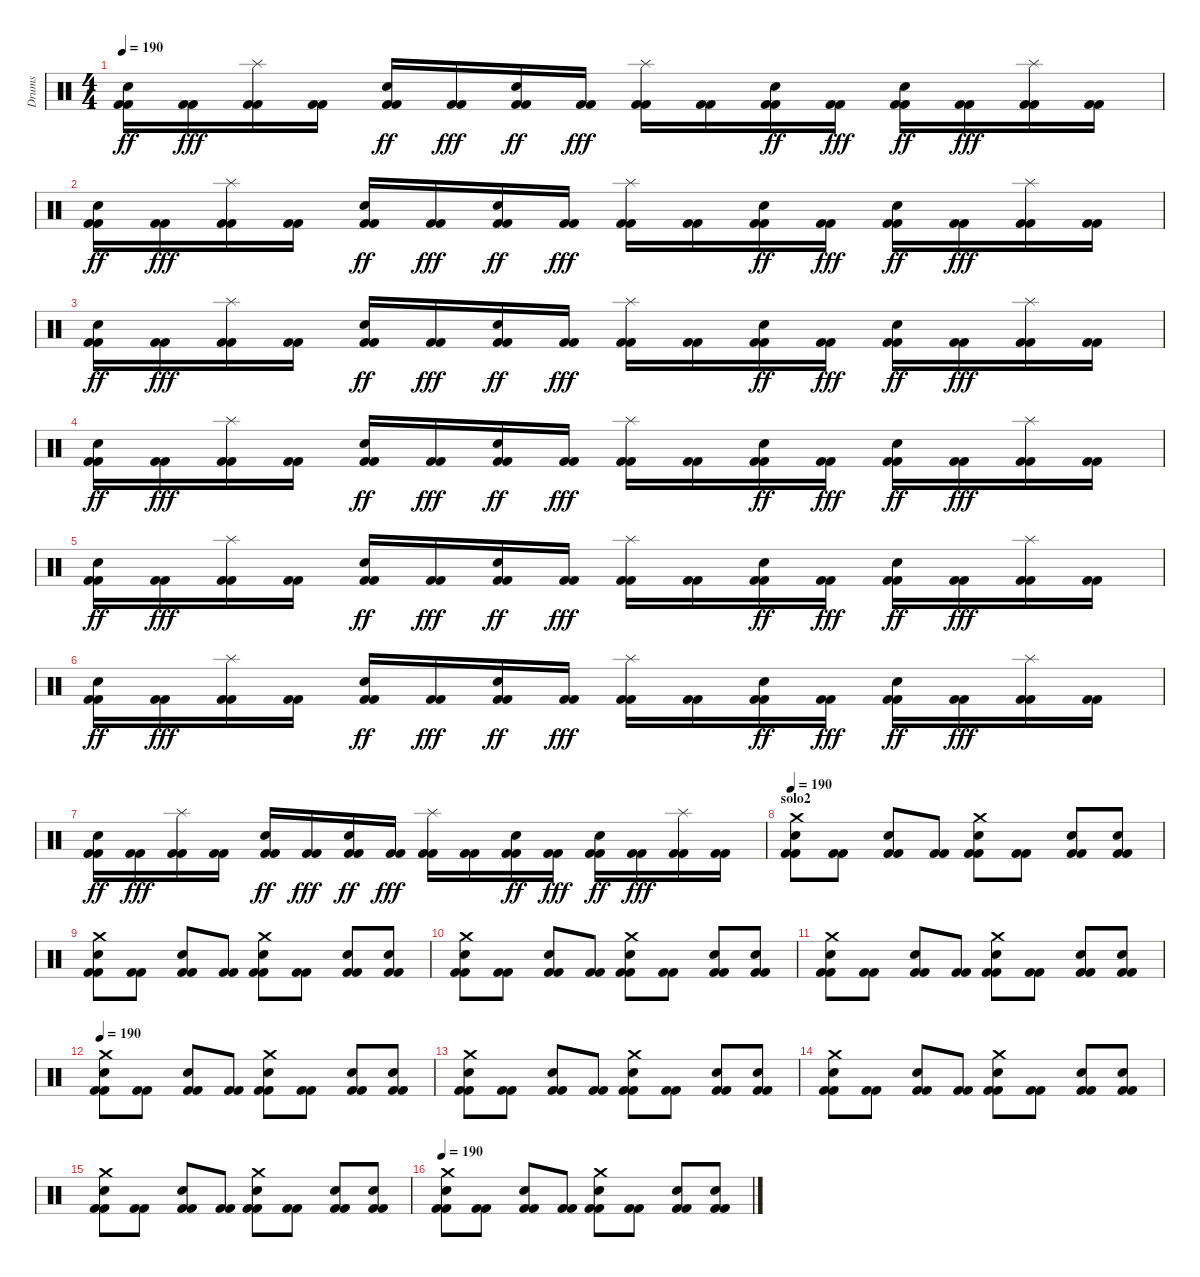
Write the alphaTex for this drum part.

\track ("Drums" "Drums") {instrument percussion}
\staff {score}
\articulation defaults
\ts (4 4)
\tempo 190
\clef neutral
\ks c
("Kick (hit) 2" "Kick (hit) 2" "Electric Snare (hit)").16{dy ff} ("Kick (hit) 2" "Kick (hit) 2").16{dy fff} ("Kick (hit) 2" "Kick (hit) 2" "Splash (hit)").16 ("Kick (hit) 2" "Kick (hit) 2").16 ("Kick (hit) 2" "Kick (hit) 2" "Electric Snare (hit)").16{dy ff} ("Kick (hit) 2" "Kick (hit) 2").16{dy fff} ("Kick (hit) 2" "Kick (hit) 2" "Electric Snare (hit)").16{dy ff} ("Kick (hit) 2" "Kick (hit) 2").16{dy fff} ("Kick (hit) 2" "Kick (hit) 2" "Splash (hit)").16 ("Kick (hit) 2" "Kick (hit) 2").16 ("Kick (hit) 2" "Kick (hit) 2" "Electric Snare (hit)").16{dy ff} ("Kick (hit) 2" "Kick (hit) 2").16{dy fff} ("Kick (hit) 2" "Kick (hit) 2" "Electric Snare (hit)").16{dy ff} ("Kick (hit) 2" "Kick (hit) 2").16{dy fff} ("Kick (hit) 2" "Kick (hit) 2" "Splash (hit)").16 ("Kick (hit) 2" "Kick (hit) 2").16 |
("Kick (hit) 2" "Kick (hit) 2" "Electric Snare (hit)").16{dy ff} ("Kick (hit) 2" "Kick (hit) 2").16{dy fff} ("Kick (hit) 2" "Kick (hit) 2" "Splash (hit)").16 ("Kick (hit) 2" "Kick (hit) 2").16 ("Kick (hit) 2" "Kick (hit) 2" "Electric Snare (hit)").16{dy ff} ("Kick (hit) 2" "Kick (hit) 2").16{dy fff} ("Kick (hit) 2" "Kick (hit) 2" "Electric Snare (hit)").16{dy ff} ("Kick (hit) 2" "Kick (hit) 2").16{dy fff} ("Kick (hit) 2" "Kick (hit) 2" "Splash (hit)").16 ("Kick (hit) 2" "Kick (hit) 2").16 ("Kick (hit) 2" "Kick (hit) 2" "Electric Snare (hit)").16{dy ff} ("Kick (hit) 2" "Kick (hit) 2").16{dy fff} ("Kick (hit) 2" "Kick (hit) 2" "Electric Snare (hit)").16{dy ff} ("Kick (hit) 2" "Kick (hit) 2").16{dy fff} ("Kick (hit) 2" "Kick (hit) 2" "Splash (hit)").16 ("Kick (hit) 2" "Kick (hit) 2").16 |
("Kick (hit) 2" "Kick (hit) 2" "Electric Snare (hit)").16{dy ff} ("Kick (hit) 2" "Kick (hit) 2").16{dy fff} ("Kick (hit) 2" "Kick (hit) 2" "Splash (hit)").16 ("Kick (hit) 2" "Kick (hit) 2").16 ("Kick (hit) 2" "Kick (hit) 2" "Electric Snare (hit)").16{dy ff} ("Kick (hit) 2" "Kick (hit) 2").16{dy fff} ("Kick (hit) 2" "Kick (hit) 2" "Electric Snare (hit)").16{dy ff} ("Kick (hit) 2" "Kick (hit) 2").16{dy fff} ("Kick (hit) 2" "Kick (hit) 2" "Splash (hit)").16 ("Kick (hit) 2" "Kick (hit) 2").16 ("Kick (hit) 2" "Kick (hit) 2" "Electric Snare (hit)").16{dy ff} ("Kick (hit) 2" "Kick (hit) 2").16{dy fff} ("Kick (hit) 2" "Kick (hit) 2" "Electric Snare (hit)").16{dy ff} ("Kick (hit) 2" "Kick (hit) 2").16{dy fff} ("Kick (hit) 2" "Kick (hit) 2" "Splash (hit)").16 ("Kick (hit) 2" "Kick (hit) 2").16 |
("Kick (hit) 2" "Kick (hit) 2" "Electric Snare (hit)").16{dy ff} ("Kick (hit) 2" "Kick (hit) 2").16{dy fff} ("Kick (hit) 2" "Kick (hit) 2" "Splash (hit)").16 ("Kick (hit) 2" "Kick (hit) 2").16 ("Kick (hit) 2" "Kick (hit) 2" "Electric Snare (hit)").16{dy ff} ("Kick (hit) 2" "Kick (hit) 2").16{dy fff} ("Kick (hit) 2" "Kick (hit) 2" "Electric Snare (hit)").16{dy ff} ("Kick (hit) 2" "Kick (hit) 2").16{dy fff} ("Kick (hit) 2" "Kick (hit) 2" "Splash (hit)").16 ("Kick (hit) 2" "Kick (hit) 2").16 ("Kick (hit) 2" "Kick (hit) 2" "Electric Snare (hit)").16{dy ff} ("Kick (hit) 2" "Kick (hit) 2").16{dy fff} ("Kick (hit) 2" "Kick (hit) 2" "Electric Snare (hit)").16{dy ff} ("Kick (hit) 2" "Kick (hit) 2").16{dy fff} ("Kick (hit) 2" "Kick (hit) 2" "Splash (hit)").16 ("Kick (hit) 2" "Kick (hit) 2").16 |
("Kick (hit) 2" "Kick (hit) 2" "Electric Snare (hit)").16{dy ff} ("Kick (hit) 2" "Kick (hit) 2").16{dy fff} ("Kick (hit) 2" "Kick (hit) 2" "Splash (hit)").16 ("Kick (hit) 2" "Kick (hit) 2").16 ("Kick (hit) 2" "Kick (hit) 2" "Electric Snare (hit)").16{dy ff} ("Kick (hit) 2" "Kick (hit) 2").16{dy fff} ("Kick (hit) 2" "Kick (hit) 2" "Electric Snare (hit)").16{dy ff} ("Kick (hit) 2" "Kick (hit) 2").16{dy fff} ("Kick (hit) 2" "Kick (hit) 2" "Splash (hit)").16 ("Kick (hit) 2" "Kick (hit) 2").16 ("Kick (hit) 2" "Kick (hit) 2" "Electric Snare (hit)").16{dy ff} ("Kick (hit) 2" "Kick (hit) 2").16{dy fff} ("Kick (hit) 2" "Kick (hit) 2" "Electric Snare (hit)").16{dy ff} ("Kick (hit) 2" "Kick (hit) 2").16{dy fff} ("Kick (hit) 2" "Kick (hit) 2" "Splash (hit)").16 ("Kick (hit) 2" "Kick (hit) 2").16 |
("Kick (hit) 2" "Kick (hit) 2" "Electric Snare (hit)").16{dy ff} ("Kick (hit) 2" "Kick (hit) 2").16{dy fff} ("Kick (hit) 2" "Kick (hit) 2" "Splash (hit)").16 ("Kick (hit) 2" "Kick (hit) 2").16 ("Kick (hit) 2" "Kick (hit) 2" "Electric Snare (hit)").16{dy ff} ("Kick (hit) 2" "Kick (hit) 2").16{dy fff} ("Kick (hit) 2" "Kick (hit) 2" "Electric Snare (hit)").16{dy ff} ("Kick (hit) 2" "Kick (hit) 2").16{dy fff} ("Kick (hit) 2" "Kick (hit) 2" "Splash (hit)").16 ("Kick (hit) 2" "Kick (hit) 2").16 ("Kick (hit) 2" "Kick (hit) 2" "Electric Snare (hit)").16{dy ff} ("Kick (hit) 2" "Kick (hit) 2").16{dy fff} ("Kick (hit) 2" "Kick (hit) 2" "Electric Snare (hit)").16{dy ff} ("Kick (hit) 2" "Kick (hit) 2").16{dy fff} ("Kick (hit) 2" "Kick (hit) 2" "Splash (hit)").16 ("Kick (hit) 2" "Kick (hit) 2").16 |
("Kick (hit) 2" "Kick (hit) 2" "Electric Snare (hit)").16{dy ff} ("Kick (hit) 2" "Kick (hit) 2").16{dy fff} ("Kick (hit) 2" "Kick (hit) 2" "Splash (hit)").16 ("Kick (hit) 2" "Kick (hit) 2").16 ("Kick (hit) 2" "Kick (hit) 2" "Electric Snare (hit)").16{dy ff} ("Kick (hit) 2" "Kick (hit) 2").16{dy fff} ("Kick (hit) 2" "Kick (hit) 2" "Electric Snare (hit)").16{dy ff} ("Kick (hit) 2" "Kick (hit) 2").16{dy fff} ("Kick (hit) 2" "Kick (hit) 2" "Splash (hit)").16 ("Kick (hit) 2" "Kick (hit) 2").16 ("Kick (hit) 2" "Kick (hit) 2" "Electric Snare (hit)").16{dy ff} ("Kick (hit) 2" "Kick (hit) 2").16{dy fff} ("Kick (hit) 2" "Kick (hit) 2" "Electric Snare (hit)").16{dy ff} ("Kick (hit) 2" "Kick (hit) 2").16{dy fff} ("Kick (hit) 2" "Kick (hit) 2" "Splash (hit)").16 ("Kick (hit) 2" "Kick (hit) 2").16 |
\section ("" "solo2")
\tempo 190
("Kick (hit) 2" "Kick (hit) 2" "Electric Snare (hit)" "Crash medium (hit)").8 ("Kick (hit) 2" "Kick (hit) 2").8 ("Kick (hit) 2" "Kick (hit) 2" "Electric Snare (hit)").8 ("Kick (hit) 2" "Kick (hit) 2").8 ("Kick (hit) 2" "Kick (hit) 2" "Electric Snare (hit)" "Crash medium (hit)").8 ("Kick (hit) 2" "Kick (hit) 2").8 ("Kick (hit) 2" "Kick (hit) 2" "Electric Snare (hit)").8 ("Kick (hit) 2" "Kick (hit) 2" "Electric Snare (hit)").8 |
("Kick (hit) 2" "Kick (hit) 2" "Electric Snare (hit)" "Crash medium (hit)").8 ("Kick (hit) 2" "Kick (hit) 2").8 ("Kick (hit) 2" "Kick (hit) 2" "Electric Snare (hit)").8 ("Kick (hit) 2" "Kick (hit) 2").8 ("Kick (hit) 2" "Kick (hit) 2" "Electric Snare (hit)" "Crash medium (hit)").8 ("Kick (hit) 2" "Kick (hit) 2").8 ("Kick (hit) 2" "Kick (hit) 2" "Electric Snare (hit)").8 ("Kick (hit) 2" "Kick (hit) 2" "Electric Snare (hit)").8 |
("Kick (hit) 2" "Kick (hit) 2" "Electric Snare (hit)" "Crash medium (hit)").8 ("Kick (hit) 2" "Kick (hit) 2").8 ("Kick (hit) 2" "Kick (hit) 2" "Electric Snare (hit)").8 ("Kick (hit) 2" "Kick (hit) 2").8 ("Kick (hit) 2" "Kick (hit) 2" "Electric Snare (hit)" "Crash medium (hit)").8 ("Kick (hit) 2" "Kick (hit) 2").8 ("Kick (hit) 2" "Kick (hit) 2" "Electric Snare (hit)").8 ("Kick (hit) 2" "Kick (hit) 2" "Electric Snare (hit)").8 |
("Kick (hit) 2" "Kick (hit) 2" "Electric Snare (hit)" "Crash medium (hit)").8 ("Kick (hit) 2" "Kick (hit) 2").8 ("Kick (hit) 2" "Kick (hit) 2" "Electric Snare (hit)").8 ("Kick (hit) 2" "Kick (hit) 2").8 ("Kick (hit) 2" "Kick (hit) 2" "Electric Snare (hit)" "Crash medium (hit)").8 ("Kick (hit) 2" "Kick (hit) 2").8 ("Kick (hit) 2" "Kick (hit) 2" "Electric Snare (hit)").8 ("Kick (hit) 2" "Kick (hit) 2" "Electric Snare (hit)").8 |
\tempo 190
("Kick (hit) 2" "Kick (hit) 2" "Electric Snare (hit)" "Crash medium (hit)").8 ("Kick (hit) 2" "Kick (hit) 2").8 ("Kick (hit) 2" "Kick (hit) 2" "Electric Snare (hit)").8 ("Kick (hit) 2" "Kick (hit) 2").8 ("Kick (hit) 2" "Kick (hit) 2" "Electric Snare (hit)" "Crash medium (hit)").8 ("Kick (hit) 2" "Kick (hit) 2").8 ("Kick (hit) 2" "Kick (hit) 2" "Electric Snare (hit)").8 ("Kick (hit) 2" "Kick (hit) 2" "Electric Snare (hit)").8 |
("Kick (hit) 2" "Kick (hit) 2" "Electric Snare (hit)" "Crash medium (hit)").8 ("Kick (hit) 2" "Kick (hit) 2").8 ("Kick (hit) 2" "Kick (hit) 2" "Electric Snare (hit)").8 ("Kick (hit) 2" "Kick (hit) 2").8 ("Kick (hit) 2" "Kick (hit) 2" "Electric Snare (hit)" "Crash medium (hit)").8 ("Kick (hit) 2" "Kick (hit) 2").8 ("Kick (hit) 2" "Kick (hit) 2" "Electric Snare (hit)").8 ("Kick (hit) 2" "Kick (hit) 2" "Electric Snare (hit)").8 |
("Kick (hit) 2" "Kick (hit) 2" "Electric Snare (hit)" "Crash medium (hit)").8 ("Kick (hit) 2" "Kick (hit) 2").8 ("Kick (hit) 2" "Kick (hit) 2" "Electric Snare (hit)").8 ("Kick (hit) 2" "Kick (hit) 2").8 ("Kick (hit) 2" "Kick (hit) 2" "Electric Snare (hit)" "Crash medium (hit)").8 ("Kick (hit) 2" "Kick (hit) 2").8 ("Kick (hit) 2" "Kick (hit) 2" "Electric Snare (hit)").8 ("Kick (hit) 2" "Kick (hit) 2" "Electric Snare (hit)").8 |
("Kick (hit) 2" "Kick (hit) 2" "Electric Snare (hit)" "Crash medium (hit)").8 ("Kick (hit) 2" "Kick (hit) 2").8 ("Kick (hit) 2" "Kick (hit) 2" "Electric Snare (hit)").8 ("Kick (hit) 2" "Kick (hit) 2").8 ("Kick (hit) 2" "Kick (hit) 2" "Electric Snare (hit)" "Crash medium (hit)").8 ("Kick (hit) 2" "Kick (hit) 2").8 ("Kick (hit) 2" "Kick (hit) 2" "Electric Snare (hit)").8 ("Kick (hit) 2" "Kick (hit) 2" "Electric Snare (hit)").8 |
\tempo 190
("Kick (hit) 2" "Kick (hit) 2" "Electric Snare (hit)" "Crash medium (hit)").8 ("Kick (hit) 2" "Kick (hit) 2").8 ("Kick (hit) 2" "Kick (hit) 2" "Electric Snare (hit)").8 ("Kick (hit) 2" "Kick (hit) 2").8 ("Kick (hit) 2" "Kick (hit) 2" "Electric Snare (hit)" "Crash medium (hit)").8 ("Kick (hit) 2" "Kick (hit) 2").8 ("Kick (hit) 2" "Kick (hit) 2" "Electric Snare (hit)").8 ("Kick (hit) 2" "Kick (hit) 2" "Electric Snare (hit)").8
